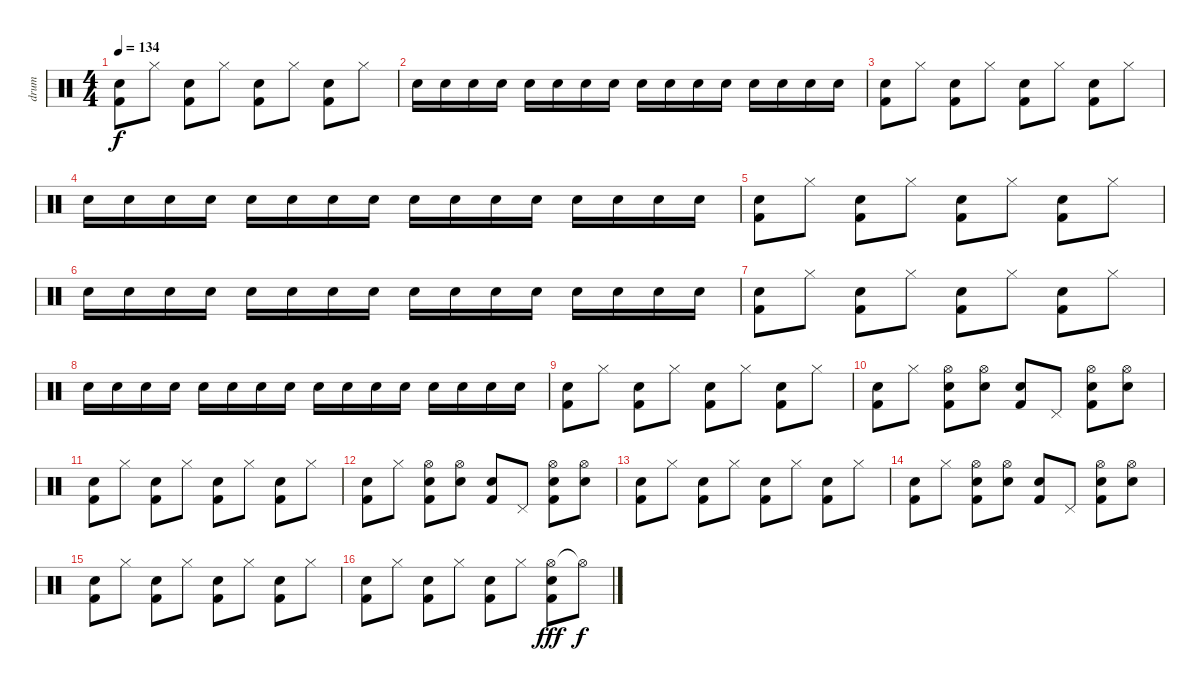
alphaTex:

\track ("drum" "drum") {instrument percussion}
\staff {score}
\articulation defaults
\ts (4 4)
\tempo 134
\clef neutral
\ks c
("Electric Snare (hit)" "Kick (hit) 2").8{dy f} "Hi-Hat (closed)".8 ("Electric Snare (hit)" "Kick (hit) 2").8 "Hi-Hat (closed)".8 ("Electric Snare (hit)" "Kick (hit) 2").8 "Hi-Hat (closed)".8 ("Electric Snare (hit)" "Kick (hit) 2").8 "Hi-Hat (closed)".8 |
"Electric Snare (hit)".16 "Electric Snare (hit)".16 "Electric Snare (hit)".16 "Electric Snare (hit)".16 "Electric Snare (hit)".16 "Electric Snare (hit)".16 "Electric Snare (hit)".16 "Electric Snare (hit)".16 "Electric Snare (hit)".16 "Electric Snare (hit)".16 "Electric Snare (hit)".16 "Electric Snare (hit)".16 "Electric Snare (hit)".16 "Electric Snare (hit)".16 "Electric Snare (hit)".16 "Electric Snare (hit)".16 |
("Electric Snare (hit)" "Kick (hit) 2").8 "Hi-Hat (closed)".8 ("Electric Snare (hit)" "Kick (hit) 2").8 "Hi-Hat (closed)".8 ("Electric Snare (hit)" "Kick (hit) 2").8 "Hi-Hat (closed)".8 ("Electric Snare (hit)" "Kick (hit) 2").8 "Hi-Hat (closed)".8 |
"Electric Snare (hit)".16 "Electric Snare (hit)".16 "Electric Snare (hit)".16 "Electric Snare (hit)".16 "Electric Snare (hit)".16 "Electric Snare (hit)".16 "Electric Snare (hit)".16 "Electric Snare (hit)".16 "Electric Snare (hit)".16 "Electric Snare (hit)".16 "Electric Snare (hit)".16 "Electric Snare (hit)".16 "Electric Snare (hit)".16 "Electric Snare (hit)".16 "Electric Snare (hit)".16 "Electric Snare (hit)".16 |
("Electric Snare (hit)" "Kick (hit) 2").8 "Hi-Hat (closed)".8 ("Electric Snare (hit)" "Kick (hit) 2").8 "Hi-Hat (closed)".8 ("Electric Snare (hit)" "Kick (hit) 2").8 "Hi-Hat (closed)".8 ("Electric Snare (hit)" "Kick (hit) 2").8 "Hi-Hat (closed)".8 |
"Electric Snare (hit)".16 "Electric Snare (hit)".16 "Electric Snare (hit)".16 "Electric Snare (hit)".16 "Electric Snare (hit)".16 "Electric Snare (hit)".16 "Electric Snare (hit)".16 "Electric Snare (hit)".16 "Electric Snare (hit)".16 "Electric Snare (hit)".16 "Electric Snare (hit)".16 "Electric Snare (hit)".16 "Electric Snare (hit)".16 "Electric Snare (hit)".16 "Electric Snare (hit)".16 "Electric Snare (hit)".16 |
("Electric Snare (hit)" "Kick (hit) 2").8 "Hi-Hat (closed)".8 ("Electric Snare (hit)" "Kick (hit) 2").8 "Hi-Hat (closed)".8 ("Electric Snare (hit)" "Kick (hit) 2").8 "Hi-Hat (closed)".8 ("Electric Snare (hit)" "Kick (hit) 2").8 "Hi-Hat (closed)".8 |
"Electric Snare (hit)".16 "Electric Snare (hit)".16 "Electric Snare (hit)".16 "Electric Snare (hit)".16 "Electric Snare (hit)".16 "Electric Snare (hit)".16 "Electric Snare (hit)".16 "Electric Snare (hit)".16 "Electric Snare (hit)".16 "Electric Snare (hit)".16 "Electric Snare (hit)".16 "Electric Snare (hit)".16 "Electric Snare (hit)".16 "Electric Snare (hit)".16 "Electric Snare (hit)".16 "Electric Snare (hit)".16 |
("Electric Snare (hit)" "Kick (hit) 2").8 "Hi-Hat (closed)".8 ("Electric Snare (hit)" "Kick (hit) 2").8 "Hi-Hat (closed)".8 ("Electric Snare (hit)" "Kick (hit) 2").8 "Hi-Hat (closed)".8 ("Electric Snare (hit)" "Kick (hit) 2").8 "Hi-Hat (closed)".8 |
("Electric Snare (hit)" "Kick (hit) 2").8 "Hi-Hat (closed)".8 ("Hi-Hat (open)" "Electric Snare (hit)" "Kick (hit) 2").8 ("Hi-Hat (open)" "Electric Snare (hit)").8 ("Electric Snare (hit)" "Kick (hit) 2").8 "Pedal Hi-Hat (hit)".8 ("Hi-Hat (open)" "Electric Snare (hit)" "Kick (hit) 2").8 ("Hi-Hat (open)" "Electric Snare (hit)").8 |
("Electric Snare (hit)" "Kick (hit) 2").8 "Hi-Hat (closed)".8 ("Electric Snare (hit)" "Kick (hit) 2").8 "Hi-Hat (closed)".8 ("Electric Snare (hit)" "Kick (hit) 2").8 "Hi-Hat (closed)".8 ("Electric Snare (hit)" "Kick (hit) 2").8 "Hi-Hat (closed)".8 |
("Electric Snare (hit)" "Kick (hit) 2").8 "Hi-Hat (closed)".8 ("Hi-Hat (open)" "Electric Snare (hit)" "Kick (hit) 2").8 ("Hi-Hat (open)" "Electric Snare (hit)").8 ("Electric Snare (hit)" "Kick (hit) 2").8 "Pedal Hi-Hat (hit)".8 ("Hi-Hat (open)" "Electric Snare (hit)" "Kick (hit) 2").8 ("Hi-Hat (open)" "Electric Snare (hit)").8 |
("Electric Snare (hit)" "Kick (hit) 2").8 "Hi-Hat (closed)".8 ("Electric Snare (hit)" "Kick (hit) 2").8 "Hi-Hat (closed)".8 ("Electric Snare (hit)" "Kick (hit) 2").8 "Hi-Hat (closed)".8 ("Electric Snare (hit)" "Kick (hit) 2").8 "Hi-Hat (closed)".8 |
("Electric Snare (hit)" "Kick (hit) 2").8 "Hi-Hat (closed)".8 ("Hi-Hat (open)" "Electric Snare (hit)" "Kick (hit) 2").8 ("Hi-Hat (open)" "Electric Snare (hit)").8 ("Electric Snare (hit)" "Kick (hit) 2").8 "Pedal Hi-Hat (hit)".8 ("Hi-Hat (open)" "Electric Snare (hit)" "Kick (hit) 2").8 ("Hi-Hat (open)" "Electric Snare (hit)").8 |
("Electric Snare (hit)" "Kick (hit) 2").8 "Hi-Hat (closed)".8 ("Electric Snare (hit)" "Kick (hit) 2").8 "Hi-Hat (closed)".8 ("Electric Snare (hit)" "Kick (hit) 2").8 "Hi-Hat (closed)".8 ("Electric Snare (hit)" "Kick (hit) 2").8 "Hi-Hat (closed)".8 |
("Electric Snare (hit)" "Kick (hit) 2").8 "Hi-Hat (closed)".8 ("Electric Snare (hit)" "Kick (hit) 2").8 "Hi-Hat (closed)".8 ("Electric Snare (hit)" "Kick (hit) 2").8 "Hi-Hat (closed)".8 ("Hi-Hat (open)" "Electric Snare (hit)" "Kick (hit) 2").8{dy fff} "Hi-Hat (open)"{t}.8{dy f}
